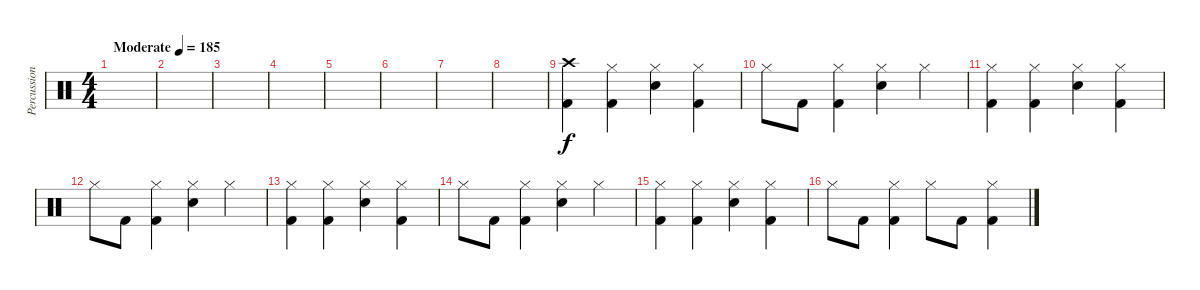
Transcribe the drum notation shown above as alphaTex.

\track ("Percussion" "Percussion") {instrument percussion}
\staff {score}
\articulation defaults
\ts (4 4)
\tempo (185 "Moderate")
\clef neutral
\ks c
|
|
|
|
|
|
|
|
("Crash high (hit)" "Kick (hit) 2").4 ("Hi-Hat (closed)" "Kick (hit) 2").4 ("Hi-Hat (closed)" "Electric Snare (hit)").4 ("Hi-Hat (closed)" "Kick (hit) 2").4 |
"Hi-Hat (closed)".8 "Kick (hit) 2".8 ("Hi-Hat (closed)" "Kick (hit) 2").4 ("Hi-Hat (closed)" "Electric Snare (hit)").4 "Hi-Hat (closed)".4 |
("Hi-Hat (closed)" "Kick (hit) 2").4 ("Hi-Hat (closed)" "Kick (hit) 2").4 ("Hi-Hat (closed)" "Electric Snare (hit)").4 ("Hi-Hat (closed)" "Kick (hit) 2").4 |
"Hi-Hat (closed)".8 "Kick (hit) 2".8 ("Hi-Hat (closed)" "Kick (hit) 2").4 ("Hi-Hat (closed)" "Electric Snare (hit)").4 "Hi-Hat (closed)".4 |
("Hi-Hat (closed)" "Kick (hit) 2").4 ("Hi-Hat (closed)" "Kick (hit) 2").4 ("Hi-Hat (closed)" "Electric Snare (hit)").4 ("Hi-Hat (closed)" "Kick (hit) 2").4 |
"Hi-Hat (closed)".8 "Kick (hit) 2".8 ("Hi-Hat (closed)" "Kick (hit) 2").4 ("Hi-Hat (closed)" "Electric Snare (hit)").4 "Hi-Hat (closed)".4 |
("Hi-Hat (closed)" "Kick (hit) 2").4 ("Hi-Hat (closed)" "Kick (hit) 2").4 ("Hi-Hat (closed)" "Electric Snare (hit)").4 ("Hi-Hat (closed)" "Kick (hit) 2").4 |
"Hi-Hat (closed)".8 "Kick (hit) 2".8 ("Hi-Hat (closed)" "Kick (hit) 2").4 "Hi-Hat (closed)".8 "Kick (hit) 2".8 ("Hi-Hat (closed)" "Kick (hit) 2").4
